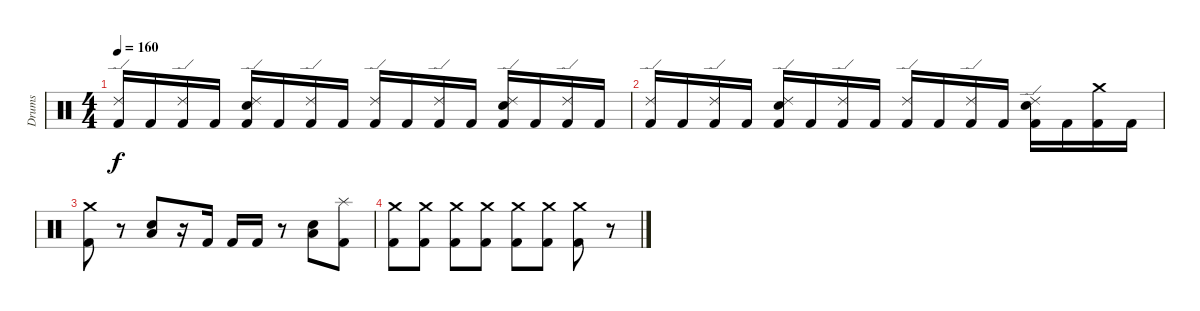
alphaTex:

\track ("Drums" "Drums") {instrument percussion}
\staff {score}
\articulation defaults
\ts (4 4)
\tempo 160
\clef neutral
\ks c
("Ride (edge) 2" "Kick (hit) 2").16{dy f} "Kick (hit) 2".16 ("Ride (edge) 2" "Kick (hit) 2").16 "Kick (hit) 2".16 ("Ride (edge) 2" "Electric Snare (hit)" "Kick (hit) 2").16 "Kick (hit) 2".16 ("Ride (edge) 2" "Kick (hit) 2").16 "Kick (hit) 2".16 ("Ride (edge) 2" "Kick (hit) 2").16 "Kick (hit) 2".16 ("Ride (edge) 2" "Kick (hit) 2").16 "Kick (hit) 2".16 ("Ride (edge) 2" "Electric Snare (hit)" "Kick (hit) 2").16 "Kick (hit) 2".16 ("Ride (edge) 2" "Kick (hit) 2").16 "Kick (hit) 2".16 |
("Ride (edge) 2" "Kick (hit) 2").16 "Kick (hit) 2".16 ("Ride (edge) 2" "Kick (hit) 2").16 "Kick (hit) 2".16 ("Ride (edge) 2" "Electric Snare (hit)" "Kick (hit) 2").16 "Kick (hit) 2".16 ("Ride (edge) 2" "Kick (hit) 2").16 "Kick (hit) 2".16 ("Ride (edge) 2" "Kick (hit) 2").16 "Kick (hit) 2".16 ("Ride (edge) 2" "Kick (hit) 2").16 "Kick (hit) 2".16 ("Ride (edge) 2" "Electric Snare (hit)" "Kick (hit) 2").16 "Kick (hit) 2".16 ("Crash medium (hit)" "Kick (hit) 2").16 "Kick (hit) 2".16 |
("Crash medium (hit)" "Kick (hit) 2").8 r.8 ("Low Floor Tom (hit)" "Electric Snare (hit)").8 r.16 "Kick (hit) 2".16 "Kick (hit) 2".16 "Kick (hit) 2".16 r.8 ("Low Floor Tom (hit)" "Electric Snare (hit)").8 ("Splash (hit)" "Kick (hit) 2").8 |
("Kick (hit) 2" "Crash medium (hit)").8 ("Kick (hit) 2" "Crash medium (hit)").8 ("Crash medium (hit)" "Kick (hit) 2").8 ("Kick (hit) 2" "Crash medium (hit)").8 ("Kick (hit) 2" "Crash medium (hit)").8 ("Kick (hit) 2" "Crash medium (hit)").8 ("Crash medium (hit)" "Kick (hit) 2").8 r.8
